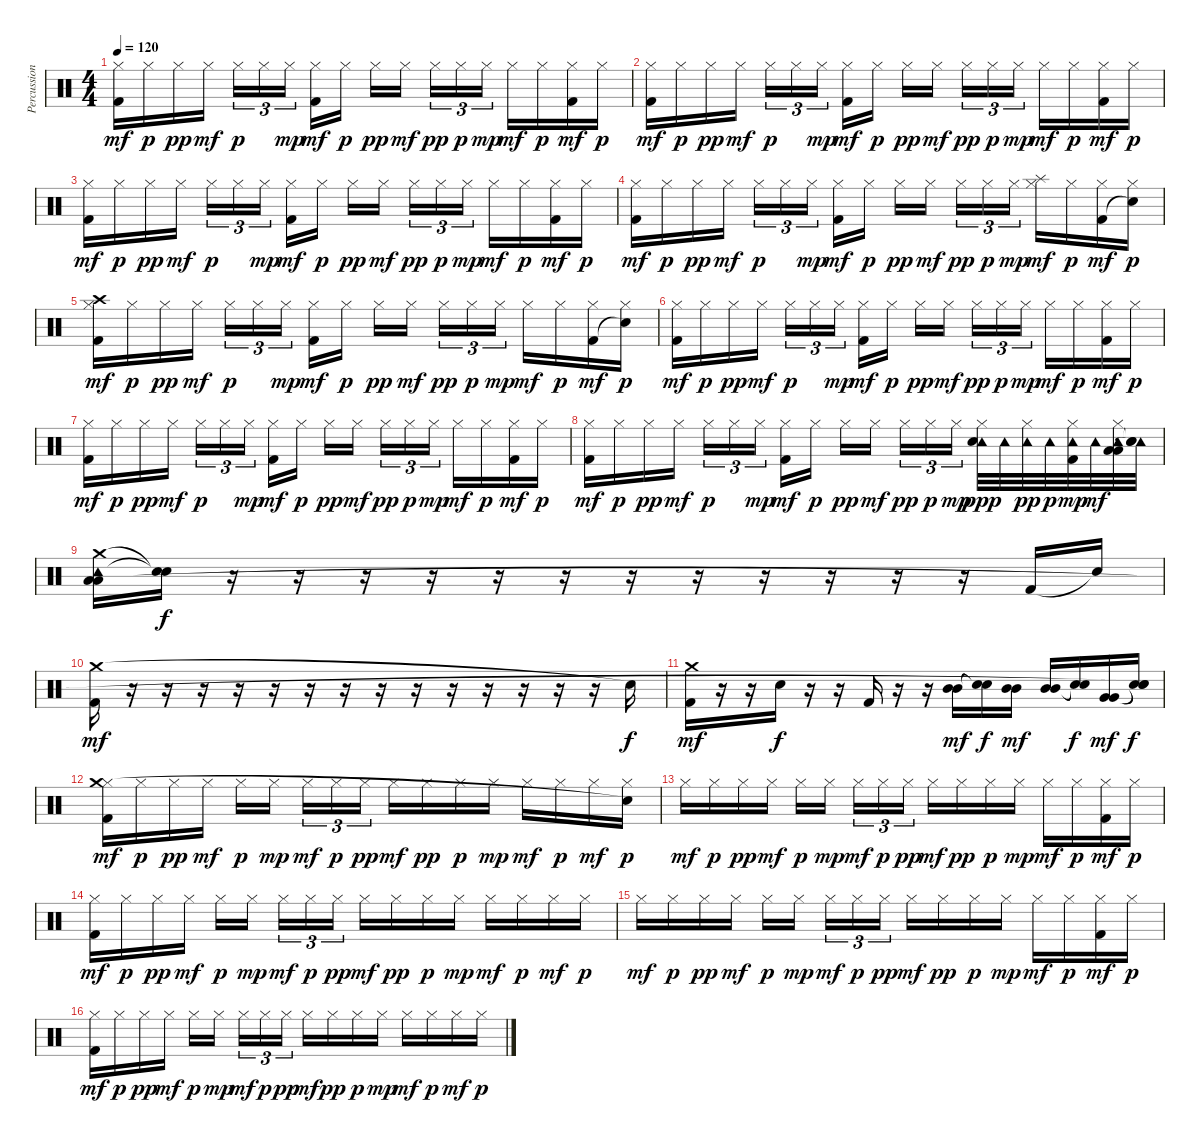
\track ("Percussion" "Percussion") {instrument percussion}
\staff {score}
\articulation defaults
\ts (4 4)
\tempo 120
\clef neutral
\ks c
("Hi-Hat (closed)" "Kick (hit) 2").16{dy mf} "Hi-Hat (closed)".16{dy p} "Hi-Hat (closed)".16{dy pp} "Hi-Hat (closed)".16{dy mf} "Hi-Hat (closed)".16{tu (3 2) dy p} "Hi-Hat (closed)".16{tu (3 2)} "Hi-Hat (closed)".16{tu (3 2) dy mp beam splitsecondary} ("Hi-Hat (closed)" "Kick (hit) 2").16{dy mf} "Hi-Hat (closed)".16{dy p} "Hi-Hat (closed)".16{dy pp} "Hi-Hat (closed)".16{dy mf beam splitsecondary} "Hi-Hat (closed)".16{tu (3 2) dy pp} "Hi-Hat (closed)".16{tu (3 2) dy p} "Hi-Hat (closed)".16{tu (3 2) dy mp} "Hi-Hat (closed)".16{dy mf} "Hi-Hat (closed)".16{dy p} ("Hi-Hat (closed)" "Kick (hit) 2").16{dy mf} "Hi-Hat (closed)".16{dy p} |
("Hi-Hat (closed)" "Kick (hit) 2").16{dy mf} "Hi-Hat (closed)".16{dy p} "Hi-Hat (closed)".16{dy pp} "Hi-Hat (closed)".16{dy mf} "Hi-Hat (closed)".16{tu (3 2) dy p} "Hi-Hat (closed)".16{tu (3 2)} "Hi-Hat (closed)".16{tu (3 2) dy mp beam splitsecondary} ("Hi-Hat (closed)" "Kick (hit) 2").16{dy mf} "Hi-Hat (closed)".16{dy p} "Hi-Hat (closed)".16{dy pp} "Hi-Hat (closed)".16{dy mf beam splitsecondary} "Hi-Hat (closed)".16{tu (3 2) dy pp} "Hi-Hat (closed)".16{tu (3 2) dy p} "Hi-Hat (closed)".16{tu (3 2) dy mp} "Hi-Hat (closed)".16{dy mf} "Hi-Hat (closed)".16{dy p} ("Hi-Hat (closed)" "Kick (hit) 2").16{dy mf} "Hi-Hat (closed)".16{dy p} |
("Hi-Hat (closed)" "Kick (hit) 2").16{dy mf} "Hi-Hat (closed)".16{dy p} "Hi-Hat (closed)".16{dy pp} "Hi-Hat (closed)".16{dy mf} "Hi-Hat (closed)".16{tu (3 2) dy p} "Hi-Hat (closed)".16{tu (3 2)} "Hi-Hat (closed)".16{tu (3 2) dy mp beam splitsecondary} ("Hi-Hat (closed)" "Kick (hit) 2").16{dy mf} "Hi-Hat (closed)".16{dy p} "Hi-Hat (closed)".16{dy pp} "Hi-Hat (closed)".16{dy mf beam splitsecondary} "Hi-Hat (closed)".16{tu (3 2) dy pp} "Hi-Hat (closed)".16{tu (3 2) dy p} "Hi-Hat (closed)".16{tu (3 2) dy mp} "Hi-Hat (closed)".16{dy mf} "Hi-Hat (closed)".16{dy p} ("Hi-Hat (closed)" "Kick (hit) 2").16{dy mf} "Hi-Hat (closed)".16{dy p} |
("Hi-Hat (closed)" "Kick (hit) 2").16{dy mf} "Hi-Hat (closed)".16{dy p} "Hi-Hat (closed)".16{dy pp} "Hi-Hat (closed)".16{dy mf} "Hi-Hat (closed)".16{tu (3 2) dy p} "Hi-Hat (closed)".16{tu (3 2)} "Hi-Hat (closed)".16{tu (3 2) dy mp beam splitsecondary} ("Hi-Hat (closed)" "Kick (hit) 2").16{dy mf} "Hi-Hat (closed)".16{dy p} "Hi-Hat (closed)".16{dy pp} "Hi-Hat (closed)".16{dy mf beam splitsecondary} "Hi-Hat (closed)".16{tu (3 2) dy pp} "Hi-Hat (closed)".16{tu (3 2) dy p} "Hi-Hat (closed)".16{tu (3 2) dy mp} ("Hi-Hat (closed)" "Splash (hit)").16{dy mf} "Hi-Hat (closed)".16{dy p} ("Hi-Hat (closed)" "Kick (hit) 2").16{dy mf} ("Hi-Hat (closed)" "Snare (hit)"{t}).16{dy p} |
("Hi-Hat (closed)" "Crash high (hit)" "Kick (hit) 2").16{dy mf} "Hi-Hat (closed)".16{dy p} "Hi-Hat (closed)".16{dy pp} "Hi-Hat (closed)".16{dy mf} "Hi-Hat (closed)".16{tu (3 2) dy p} "Hi-Hat (closed)".16{tu (3 2)} "Hi-Hat (closed)".16{tu (3 2) dy mp beam splitsecondary} ("Hi-Hat (closed)" "Kick (hit) 2").16{dy mf} "Hi-Hat (closed)".16{dy p} "Hi-Hat (closed)".16{dy pp} "Hi-Hat (closed)".16{dy mf beam splitsecondary} "Hi-Hat (closed)".16{tu (3 2) dy pp} "Hi-Hat (closed)".16{tu (3 2) dy p} "Hi-Hat (closed)".16{tu (3 2) dy mp} "Hi-Hat (closed)".16{dy mf} "Hi-Hat (closed)".16{dy p} ("Hi-Hat (closed)" "Kick (hit) 2").16{dy mf} ("Hi-Hat (closed)" "Snare (hit)"{t}).16{dy p} |
("Hi-Hat (closed)" "Kick (hit) 2").16{dy mf} "Hi-Hat (closed)".16{dy p} "Hi-Hat (closed)".16{dy pp} "Hi-Hat (closed)".16{dy mf} "Hi-Hat (closed)".16{tu (3 2) dy p} "Hi-Hat (closed)".16{tu (3 2)} "Hi-Hat (closed)".16{tu (3 2) dy mp beam splitsecondary} ("Hi-Hat (closed)" "Kick (hit) 2").16{dy mf} "Hi-Hat (closed)".16{dy p} "Hi-Hat (closed)".16{dy pp} "Hi-Hat (closed)".16{dy mf beam splitsecondary} "Hi-Hat (closed)".16{tu (3 2) dy pp} "Hi-Hat (closed)".16{tu (3 2) dy p} "Hi-Hat (closed)".16{tu (3 2) dy mp} "Hi-Hat (closed)".16{dy mf} "Hi-Hat (closed)".16{dy p} ("Hi-Hat (closed)" "Kick (hit) 2").16{dy mf} "Hi-Hat (closed)".16{dy p} |
("Hi-Hat (closed)" "Kick (hit) 2").16{dy mf} "Hi-Hat (closed)".16{dy p} "Hi-Hat (closed)".16{dy pp} "Hi-Hat (closed)".16{dy mf} "Hi-Hat (closed)".16{tu (3 2) dy p} "Hi-Hat (closed)".16{tu (3 2)} "Hi-Hat (closed)".16{tu (3 2) dy mp beam splitsecondary} ("Hi-Hat (closed)" "Kick (hit) 2").16{dy mf} "Hi-Hat (closed)".16{dy p} "Hi-Hat (closed)".16{dy pp} "Hi-Hat (closed)".16{dy mf beam splitsecondary} "Hi-Hat (closed)".16{tu (3 2) dy pp} "Hi-Hat (closed)".16{tu (3 2) dy p} "Hi-Hat (closed)".16{tu (3 2) dy mp} "Hi-Hat (closed)".16{dy mf} "Hi-Hat (closed)".16{dy p} ("Hi-Hat (closed)" "Kick (hit) 2").16{dy mf} "Hi-Hat (closed)".16{dy p} |
("Hi-Hat (closed)" "Kick (hit) 2").16{dy mf} "Hi-Hat (closed)".16{dy p} "Hi-Hat (closed)".16{dy pp} "Hi-Hat (closed)".16{dy mf} "Hi-Hat (closed)".16{tu (3 2) dy p} "Hi-Hat (closed)".16{tu (3 2)} "Hi-Hat (closed)".16{tu (3 2) dy mp beam splitsecondary} ("Hi-Hat (closed)" "Kick (hit) 2").16{dy mf} "Hi-Hat (closed)".16{dy p} "Hi-Hat (closed)".16{dy pp} "Hi-Hat (closed)".16{dy mf beam splitsecondary} "Hi-Hat (closed)".16{tu (3 2) dy pp} "Hi-Hat (closed)".16{tu (3 2) dy p} "Hi-Hat (closed)".16{tu (3 2) dy mp} ("Hi-Hat (closed)" "Tambourine (hit)" "Electric Snare (hit)").32{dy ppp} "Tambourine (hit)".32 ("Hi-Hat (closed)" "Tambourine (hit)").32{dy pp} "Tambourine (hit)".32{dy p} ("Hi-Hat (closed)" "Tambourine (hit)" "Kick (hit) 2").32{dy mp} "Tambourine (hit)".32{dy mf} ("Hi-Hat (closed)" "Tambourine (hit)" "Low Floor Tom (hit)" "Low Floor Tom (hit)").32 ("Tambourine (hit)" "Snare (hit)"{t} "Snare (hit)"{t}).32 |
("Crash medium (hit)" "Tambourine (hit)" "Low Floor Tom (hit)" "Low Floor Tom (hit)").16 ("Snare (hit)"{t} "Snare (hit)"{t}).16{dy f} r.16 r.16 r.16 r.16 r.16 r.16 r.16 r.16 r.16 r.16 r.16 r.16 "Kick (hit) 2".16 "Snare (hit)"{t}.16 |
("Crash medium (hit)" "Kick (hit) 2").16{dy mf} r.16 r.16 r.16 r.16 r.16 r.16 r.16 r.16 r.16 r.16 r.16 r.16 r.16 r.16 "Snare (hit)"{t}.16{dy f} |
("Crash medium (hit)" "Kick (hit) 2").16{dy mf} r.16 r.16 "Electric Snare (hit)".16{dy f} r.16 r.16 "Kick (hit) 2".16 r.16 r.16 ("Mid Tom (hit)" "Mid Tom (hit)").16{dy mf} ("Snare (hit)"{t} "Snare (hit)"{t}).16{dy f} ("Mid Tom (hit)" "Mid Tom (hit)").16{dy mf} ("Mid Tom (hit)" "Mid Tom (hit)").16 ("Snare (hit)"{t} "Snare (hit)"{t}).16{dy f} ("Very Low Tom (hit)" "Very Low Tom (hit)").16{dy mf} ("Snare (hit)"{t} "Snare (hit)"{t} "Snare (hit)"{t}).16{dy f} |
("Hi-Hat (closed)" "Crash medium (hit)" "Kick (hit) 2").16{dy mf} "Hi-Hat (closed)".16{dy p} "Hi-Hat (closed)".16{dy pp} "Hi-Hat (closed)".16{dy mf} "Hi-Hat (closed)".16{dy p} "Hi-Hat (closed)".16{dy mp beam splitsecondary} "Hi-Hat (closed)".16{tu (3 2) dy mf} "Hi-Hat (closed)".16{tu (3 2) dy p} "Hi-Hat (closed)".16{tu (3 2) dy pp} "Hi-Hat (closed)".16{dy mf} "Hi-Hat (closed)".16{dy pp} "Hi-Hat (closed)".16{dy p} "Hi-Hat (closed)".16{dy mp} "Hi-Hat (closed)".16{dy mf} "Hi-Hat (closed)".16{dy p} "Hi-Hat (closed)".16{dy mf} ("Hi-Hat (closed)" "Snare (hit)"{t}).16{dy p} |
"Hi-Hat (closed)".16{dy mf} "Hi-Hat (closed)".16{dy p} "Hi-Hat (closed)".16{dy pp} "Hi-Hat (closed)".16{dy mf} "Hi-Hat (closed)".16{dy p} "Hi-Hat (closed)".16{dy mp beam splitsecondary} "Hi-Hat (closed)".16{tu (3 2) dy mf} "Hi-Hat (closed)".16{tu (3 2) dy p} "Hi-Hat (closed)".16{tu (3 2) dy pp} "Hi-Hat (closed)".16{dy mf} "Hi-Hat (closed)".16{dy pp} "Hi-Hat (closed)".16{dy p} "Hi-Hat (closed)".16{dy mp} "Hi-Hat (closed)".16{dy mf} "Hi-Hat (closed)".16{dy p} ("Hi-Hat (closed)" "Kick (hit) 2").16{dy mf} "Hi-Hat (closed)".16{dy p} |
("Hi-Hat (closed)" "Kick (hit) 2").16{dy mf} "Hi-Hat (closed)".16{dy p} "Hi-Hat (closed)".16{dy pp} "Hi-Hat (closed)".16{dy mf} "Hi-Hat (closed)".16{dy p} "Hi-Hat (closed)".16{dy mp beam splitsecondary} "Hi-Hat (closed)".16{tu (3 2) dy mf} "Hi-Hat (closed)".16{tu (3 2) dy p} "Hi-Hat (closed)".16{tu (3 2) dy pp} "Hi-Hat (closed)".16{dy mf} "Hi-Hat (closed)".16{dy pp} "Hi-Hat (closed)".16{dy p} "Hi-Hat (closed)".16{dy mp} "Hi-Hat (closed)".16{dy mf} "Hi-Hat (closed)".16{dy p} "Hi-Hat (closed)".16{dy mf} "Hi-Hat (closed)".16{dy p} |
"Hi-Hat (closed)".16{dy mf} "Hi-Hat (closed)".16{dy p} "Hi-Hat (closed)".16{dy pp} "Hi-Hat (closed)".16{dy mf} "Hi-Hat (closed)".16{dy p} "Hi-Hat (closed)".16{dy mp beam splitsecondary} "Hi-Hat (closed)".16{tu (3 2) dy mf} "Hi-Hat (closed)".16{tu (3 2) dy p} "Hi-Hat (closed)".16{tu (3 2) dy pp} "Hi-Hat (closed)".16{dy mf} "Hi-Hat (closed)".16{dy pp} "Hi-Hat (closed)".16{dy p} "Hi-Hat (closed)".16{dy mp} "Hi-Hat (closed)".16{dy mf} "Hi-Hat (closed)".16{dy p} ("Hi-Hat (closed)" "Kick (hit) 2").16{dy mf} "Hi-Hat (closed)".16{dy p} |
("Hi-Hat (closed)" "Kick (hit) 2").16{dy mf} "Hi-Hat (closed)".16{dy p} "Hi-Hat (closed)".16{dy pp} "Hi-Hat (closed)".16{dy mf} "Hi-Hat (closed)".16{dy p} "Hi-Hat (closed)".16{dy mp beam splitsecondary} "Hi-Hat (closed)".16{tu (3 2) dy mf} "Hi-Hat (closed)".16{tu (3 2) dy p} "Hi-Hat (closed)".16{tu (3 2) dy pp} "Hi-Hat (closed)".16{dy mf} "Hi-Hat (closed)".16{dy pp} "Hi-Hat (closed)".16{dy p} "Hi-Hat (closed)".16{dy mp} "Hi-Hat (closed)".16{dy mf} "Hi-Hat (closed)".16{dy p} "Hi-Hat (closed)".16{dy mf} "Hi-Hat (closed)".16{dy p}
